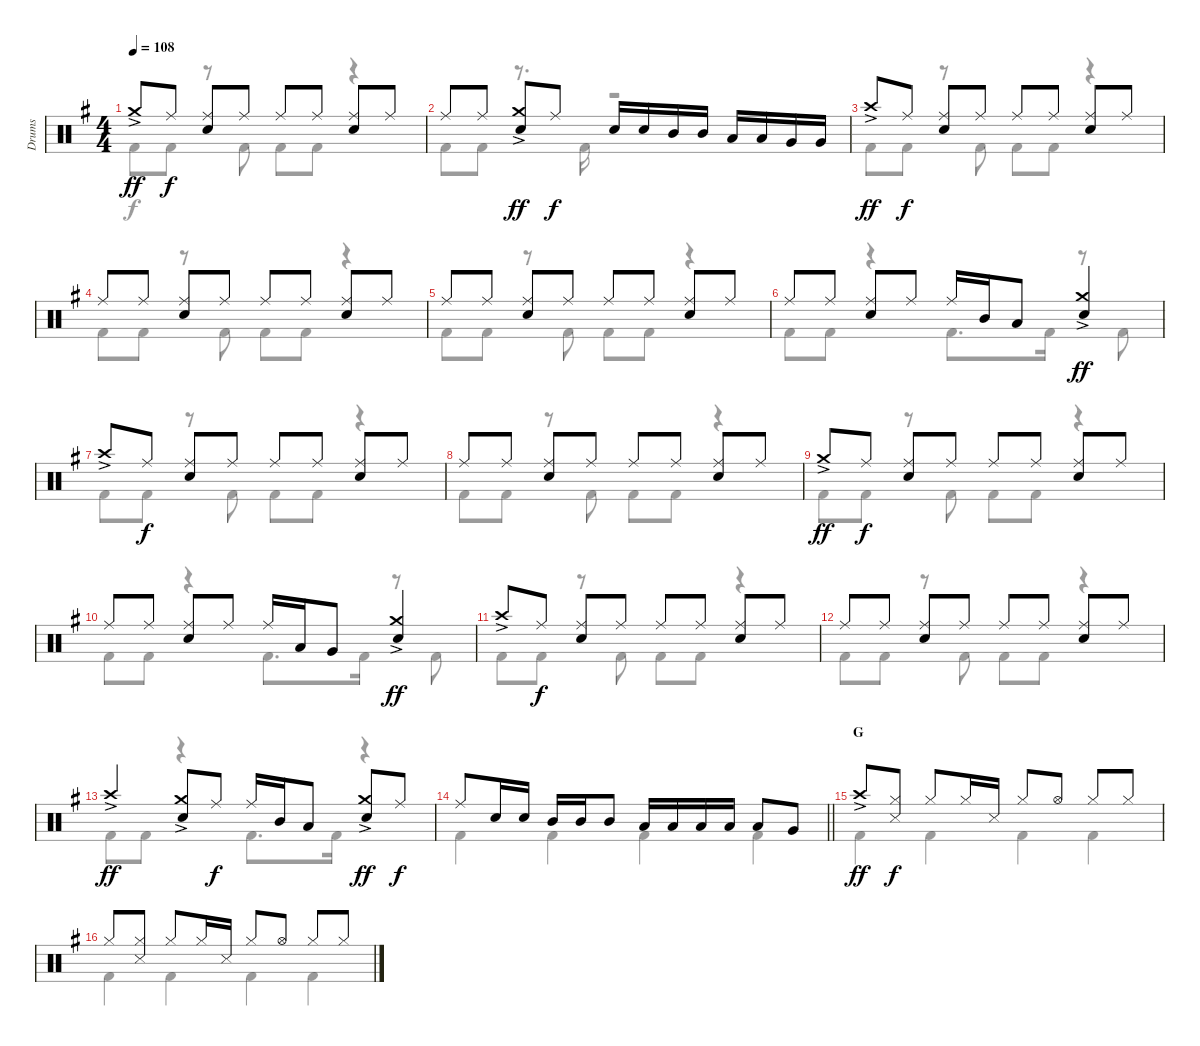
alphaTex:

\track ("Drums" "Drums") {instrument percussion}
\staff {score}
\articulation defaults
\voice
\ts (4 4)
\tempo 108
\clef neutral
\ks g "Crash medium (hit)"{ac}.8{dy ff} "Ride (middle)".8{dy f}
("Ride (middle)" "Snare (hit) 2").8 "Ride (middle)".8 "Ride (middle)".8 "Ride (middle)".8 ("Ride (middle)" "Snare (hit) 2").8 "Ride (middle)".8 |
"Ride (middle)".8 "Ride (middle)".8 ("Crash medium (hit)"{ac} "Snare (hit) 2").8{dy ff} "Ride (middle)".8{dy f} "Snare (hit) 2".16 "Snare (hit) 2".16 "Mid Tom (hit)".16 "Mid Tom (hit)".16 "Low Tom (hit)".16 "Low Tom (hit)".16 "Very Low Tom (hit)".16 "Very Low Tom (hit)".16 |
"Crash high (hit)"{ac}.8{dy ff} "Ride (middle)".8{dy f} ("Ride (middle)" "Snare (hit) 2").8 "Ride (middle)".8 "Ride (middle)".8 "Ride (middle)".8 ("Ride (middle)" "Snare (hit) 2").8 "Ride (middle)".8 |
"Ride (middle)".8 "Ride (middle)".8 ("Ride (middle)" "Snare (hit) 2").8 "Ride (middle)".8 "Ride (middle)".8 "Ride (middle)".8 ("Ride (middle)" "Snare (hit) 2").8 "Ride (middle)".8 |
"Ride (middle)".8 "Ride (middle)".8 ("Ride (middle)" "Snare (hit) 2").8 "Ride (middle)".8 "Ride (middle)".8 "Ride (middle)".8 ("Ride (middle)" "Snare (hit) 2").8 "Ride (middle)".8 |
"Ride (middle)".8 "Ride (middle)".8 ("Ride (middle)" "Snare (hit) 2").8 "Ride (middle)".8 "Ride (middle)".16 "Mid Tom (hit)".16 "Low Tom (hit)".8 ("Crash medium (hit)"{ac} "Snare (hit) 2").4{dy ff} |
"Crash high (hit)"{ac}.8 "Ride (middle)".8{dy f} ("Ride (middle)" "Snare (hit) 2").8 "Ride (middle)".8 "Ride (middle)".8 "Ride (middle)".8 ("Ride (middle)" "Snare (hit) 2").8 "Ride (middle)".8 |
"Ride (middle)".8 "Ride (middle)".8 ("Ride (middle)" "Snare (hit) 2").8 "Ride (middle)".8 "Ride (middle)".8 "Ride (middle)".8 ("Ride (middle)" "Snare (hit) 2").8 "Ride (middle)".8 |
"Crash medium (hit)"{ac}.8{dy ff} "Ride (middle)".8{dy f} ("Ride (middle)" "Snare (hit) 2").8 "Ride (middle)".8 "Ride (middle)".8 "Ride (middle)".8 ("Ride (middle)" "Snare (hit) 2").8 "Ride (middle)".8 |
"Ride (middle)".8 "Ride (middle)".8 ("Ride (middle)" "Snare (hit) 2").8 "Ride (middle)".8 "Ride (middle)".16 "Low Tom (hit)".16 "Very Low Tom (hit)".8 ("Crash medium (hit)"{ac} "Snare (hit) 2").4{dy ff} |
"Crash high (hit)"{ac}.8 "Ride (middle)".8{dy f} ("Ride (middle)" "Snare (hit) 2").8 "Ride (middle)".8 "Ride (middle)".8 "Ride (middle)".8 ("Ride (middle)" "Snare (hit) 2").8 "Ride (middle)".8 |
"Ride (middle)".8 "Ride (middle)".8 ("Ride (middle)" "Snare (hit) 2").8 "Ride (middle)".8 "Ride (middle)".8 "Ride (middle)".8 ("Ride (middle)" "Snare (hit) 2").8 "Ride (middle)".8 |
"Crash high (hit)"{ac}.4{dy ff} ("Crash medium (hit)"{ac} "Snare (hit) 2").8 "Ride (middle)".8{dy f} "Ride (middle)".16 "Mid Tom (hit)".16 "Low Tom (hit)".8 ("Crash medium (hit)"{ac} "Snare (hit) 2").8{dy ff} "Ride (middle)".8{dy f} |
\barLineRight lightlight "Ride (middle)".8 "Snare (hit) 2".16 "Snare (hit) 2".16 "Mid Tom (hit)".16 "Mid Tom (hit)".16 "Mid Tom (hit)".8 "Low Tom (hit)".16 "Low Tom (hit)".16 "Low Tom (hit)".16 "Low Tom (hit)".16 "Low Tom (hit)".8 "Very Low Tom (hit)".8
|
\section ("" "G")
"Crash high (hit)"{ac}.8{dy ff} ("Hi-Hat (closed)" "Snare (side stick) 3").8{dy f} "Hi-Hat (closed)".8 "Hi-Hat (closed)".16 "Snare (side stick) 3".16 "Hi-Hat (closed)".8 "Hi-Hat (open)".8 "Hi-Hat (closed)".8 "Hi-Hat (closed)".8 |
"Hi-Hat (closed)".8 ("Hi-Hat (closed)" "Snare (side stick) 3").8 "Hi-Hat (closed)".8 "Hi-Hat (closed)".16 "Snare (side stick) 3".16 "Hi-Hat (closed)".8 "Hi-Hat (open)".8 "Hi-Hat (closed)".8 "Hi-Hat (closed)".8
\voice
\clef neutral
\ottava regular
\simile none
\ks g "Kick (hit) 2".8{dy f} "Kick (hit) 2".8
r.8 "Kick (hit) 2".8 "Kick (hit) 2".8 "Kick (hit) 2".8 r.4 |
"Kick (hit) 2".8 "Kick (hit) 2".8 r.8{d} "Kick (hit) 2".16 r.2 |
"Kick (hit) 2".8 "Kick (hit) 2".8 r.8 "Kick (hit) 2".8 "Kick (hit) 2".8 "Kick (hit) 2".8 r.4 |
"Kick (hit) 2".8 "Kick (hit) 2".8 r.8 "Kick (hit) 2".8 "Kick (hit) 2".8 "Kick (hit) 2".8 r.4 |
"Kick (hit) 2".8 "Kick (hit) 2".8 r.8 "Kick (hit) 2".8 "Kick (hit) 2".8 "Kick (hit) 2".8 r.4 |
"Kick (hit) 2".8 "Kick (hit) 2".8 r.4 "Kick (hit) 2".8{d} "Kick (hit) 2".16 r.8 "Kick (hit) 2".8 |
"Kick (hit) 2".8 "Kick (hit) 2".8 r.8 "Kick (hit) 2".8 "Kick (hit) 2".8 "Kick (hit) 2".8 r.4 |
"Kick (hit) 2".8 "Kick (hit) 2".8 r.8 "Kick (hit) 2".8 "Kick (hit) 2".8 "Kick (hit) 2".8 r.4 |
"Kick (hit) 2".8 "Kick (hit) 2".8 r.8 "Kick (hit) 2".8 "Kick (hit) 2".8 "Kick (hit) 2".8 r.4 |
"Kick (hit) 2".8 "Kick (hit) 2".8 r.4 "Kick (hit) 2".8{d} "Kick (hit) 2".16 r.8 "Kick (hit) 2".8 |
"Kick (hit) 2".8 "Kick (hit) 2".8 r.8 "Kick (hit) 2".8 "Kick (hit) 2".8 "Kick (hit) 2".8 r.4 |
"Kick (hit) 2".8 "Kick (hit) 2".8 r.8 "Kick (hit) 2".8 "Kick (hit) 2".8 "Kick (hit) 2".8 r.4 |
"Kick (hit) 2".8 "Kick (hit) 2".8 r.4 "Kick (hit) 2".8{d} "Kick (hit) 2".16 r.4 |
\barLineRight lightlight "Kick (hit) 2".4 "Kick (hit) 2".4 "Kick (hit) 2".4 "Kick (hit) 2".4
|
"Kick (hit) 2".4 "Kick (hit) 2".4 "Kick (hit) 2".4 "Kick (hit) 2".4 |
"Kick (hit) 2".4 "Kick (hit) 2".4 "Kick (hit) 2".4 "Kick (hit) 2".4
